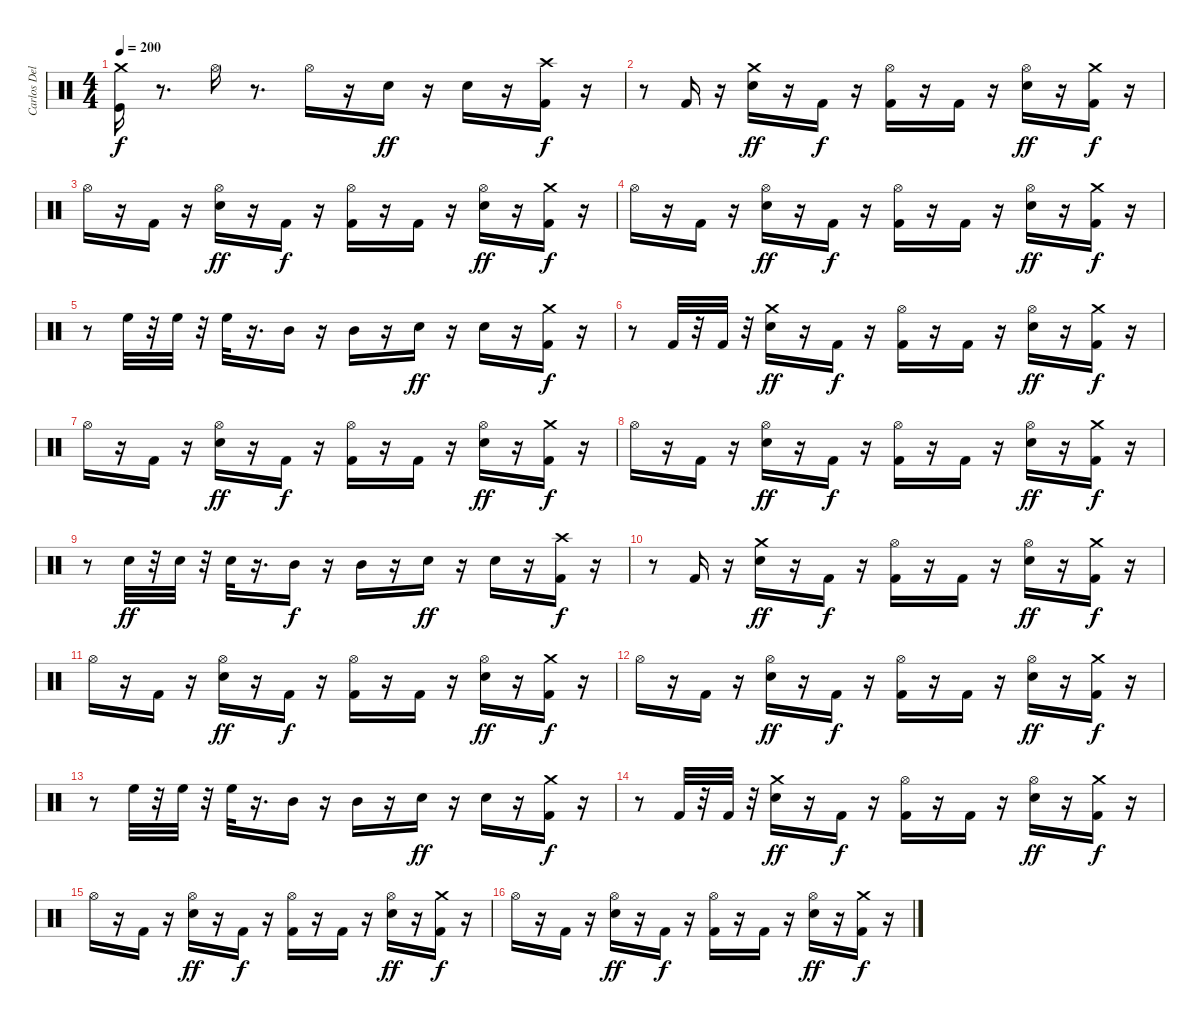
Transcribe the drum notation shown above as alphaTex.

\track ("Carlos Delgado" "Carlos Del") {instrument percussion}
\staff {score}
\articulation defaults
\ts (4 4)
\tempo 200
\clef neutral
\ks c
("Kick (hit)" "Crash medium (hit)").16{dy f} r.8{d} "Hi-Hat (open)".16 r.8{d} "Hi-Hat (open)".16 r.16 "Electric Snare (hit)".16{dy ff} r.16 "Electric Snare (hit)".16 r.16 ("Crash high (hit)" "Kick (hit) 2").16{dy f} r.16 |
r.8 "Kick (hit) 2".16 r.16 ("Crash medium (hit)" "Electric Snare (hit)").16{dy ff} r.16 "Kick (hit) 2".16{dy f} r.16 ("Hi-Hat (open)" "Kick (hit) 2").16 r.16 "Kick (hit) 2".16 r.16 ("Electric Snare (hit)" "Hi-Hat (open)").16{dy ff} r.16 ("Kick (hit) 2" "Crash medium (hit)").16{dy f} r.16 |
"Hi-Hat (open)".16 r.16 "Kick (hit) 2".16 r.16 ("Hi-Hat (open)" "Electric Snare (hit)").16{dy ff} r.16 "Kick (hit) 2".16{dy f} r.16 ("Hi-Hat (open)" "Kick (hit) 2").16 r.16 "Kick (hit) 2".16 r.16 ("Electric Snare (hit)" "Hi-Hat (open)").16{dy ff} r.16 ("Kick (hit) 2" "Crash medium (hit)").16{dy f} r.16 |
"Hi-Hat (open)".16 r.16 "Kick (hit) 2".16 r.16 ("Hi-Hat (open)" "Electric Snare (hit)").16{dy ff} r.16 "Kick (hit) 2".16{dy f} r.16 ("Hi-Hat (open)" "Kick (hit) 2").16 r.16 "Kick (hit) 2".16 r.16 ("Electric Snare (hit)" "Hi-Hat (open)").16{dy ff} r.16 ("Kick (hit) 2" "Crash medium (hit)").16{dy f} r.16 |
r.8 "High Floor Tom (hit)".32 r.32 "High Floor Tom (hit)".32 r.32 "High Floor Tom (hit)".32 r.16{d} "Mid Tom (hit)".16 r.16 "Mid Tom (hit)".16 r.16 "Electric Snare (hit)".16{dy ff} r.16 "Electric Snare (hit)".16 r.16 ("Crash medium (hit)" "Kick (hit) 2").16{dy f} r.16 |
r.8 "Kick (hit) 2".32 r.32 "Kick (hit) 2".32 r.32 ("Crash medium (hit)" "Electric Snare (hit)").16{dy ff} r.16 "Kick (hit) 2".16{dy f} r.16 ("Kick (hit) 2" "Hi-Hat (open)").16 r.16 "Kick (hit) 2".16 r.16 ("Electric Snare (hit)" "Hi-Hat (open)").16{dy ff} r.16 ("Kick (hit) 2" "Crash medium (hit)").16{dy f} r.16 |
"Hi-Hat (open)".16 r.16 "Kick (hit) 2".16 r.16 ("Electric Snare (hit)" "Hi-Hat (open)").16{dy ff} r.16 "Kick (hit) 2".16{dy f} r.16 ("Hi-Hat (open)" "Kick (hit) 2").16 r.16 "Kick (hit) 2".16 r.16 ("Electric Snare (hit)" "Hi-Hat (open)").16{dy ff} r.16 ("Kick (hit) 2" "Crash medium (hit)").16{dy f} r.16 |
"Hi-Hat (open)".16 r.16 "Kick (hit) 2".16 r.16 ("Electric Snare (hit)" "Hi-Hat (open)").16{dy ff} r.16 "Kick (hit) 2".16{dy f} r.16 ("Hi-Hat (open)" "Kick (hit) 2").16 r.16 "Kick (hit) 2".16 r.16 ("Electric Snare (hit)" "Hi-Hat (open)").16{dy ff} r.16 ("Kick (hit) 2" "Crash medium (hit)").16{dy f} r.16 |
r.8 "Electric Snare (hit)".32{dy ff} r.32 "Electric Snare (hit)".32 r.32 "Electric Snare (hit)".32 r.16{d} "Mid Tom (hit)".16{dy f} r.16 "Mid Tom (hit)".16 r.16 "Electric Snare (hit)".16{dy ff} r.16 "Electric Snare (hit)".16 r.16 ("Crash high (hit)" "Kick (hit) 2").16{dy f} r.16 |
r.8 "Kick (hit) 2".16 r.16 ("Crash medium (hit)" "Electric Snare (hit)").16{dy ff} r.16 "Kick (hit) 2".16{dy f} r.16 ("Kick (hit) 2" "Hi-Hat (open)").16 r.16 "Kick (hit) 2".16 r.16 ("Hi-Hat (open)" "Electric Snare (hit)").16{dy ff} r.16 ("Kick (hit) 2" "Crash medium (hit)").16{dy f} r.16 |
"Hi-Hat (open)".16 r.16 "Kick (hit) 2".16 r.16 ("Hi-Hat (open)" "Electric Snare (hit)").16{dy ff} r.16 "Kick (hit) 2".16{dy f} r.16 ("Hi-Hat (open)" "Kick (hit) 2").16 r.16 "Kick (hit) 2".16 r.16 ("Hi-Hat (open)" "Electric Snare (hit)").16{dy ff} r.16 ("Kick (hit) 2" "Crash medium (hit)").16{dy f} r.16 |
"Hi-Hat (open)".16 r.16 "Kick (hit) 2".16 r.16 ("Hi-Hat (open)" "Electric Snare (hit)").16{dy ff} r.16 "Kick (hit) 2".16{dy f} r.16 ("Hi-Hat (open)" "Kick (hit) 2").16 r.16 "Kick (hit) 2".16 r.16 ("Hi-Hat (open)" "Electric Snare (hit)").16{dy ff} r.16 ("Kick (hit) 2" "Crash medium (hit)").16{dy f} r.16 |
r.8 "High Floor Tom (hit)".32 r.32 "High Floor Tom (hit)".32 r.32 "High Floor Tom (hit)".32 r.16{d} "Mid Tom (hit)".16 r.16 "Mid Tom (hit)".16 r.16 "Electric Snare (hit)".16{dy ff} r.16 "Electric Snare (hit)".16 r.16 ("Crash medium (hit)" "Kick (hit) 2").16{dy f} r.16 |
r.8 "Kick (hit) 2".32 r.32 "Kick (hit) 2".32 r.32 ("Crash medium (hit)" "Electric Snare (hit)").16{dy ff} r.16 "Kick (hit) 2".16{dy f} r.16 ("Kick (hit) 2" "Hi-Hat (open)").16 r.16 "Kick (hit) 2".16 r.16 ("Hi-Hat (open)" "Electric Snare (hit)").16{dy ff} r.16 ("Crash medium (hit)" "Kick (hit) 2").16{dy f} r.16 |
"Hi-Hat (open)".16 r.16 "Kick (hit) 2".16 r.16 ("Hi-Hat (open)" "Electric Snare (hit)").16{dy ff} r.16 "Kick (hit) 2".16{dy f} r.16 ("Kick (hit) 2" "Hi-Hat (open)").16 r.16 "Kick (hit) 2".16 r.16 ("Electric Snare (hit)" "Hi-Hat (open)").16{dy ff} r.16 ("Kick (hit) 2" "Crash medium (hit)").16{dy f} r.16 |
"Hi-Hat (open)".16 r.16 "Kick (hit) 2".16 r.16 ("Hi-Hat (open)" "Electric Snare (hit)").16{dy ff} r.16 "Kick (hit) 2".16{dy f} r.16 ("Kick (hit) 2" "Hi-Hat (open)").16 r.16 "Kick (hit) 2".16 r.16 ("Electric Snare (hit)" "Hi-Hat (open)").16{dy ff} r.16 ("Kick (hit) 2" "Crash medium (hit)").16{dy f} r.16
